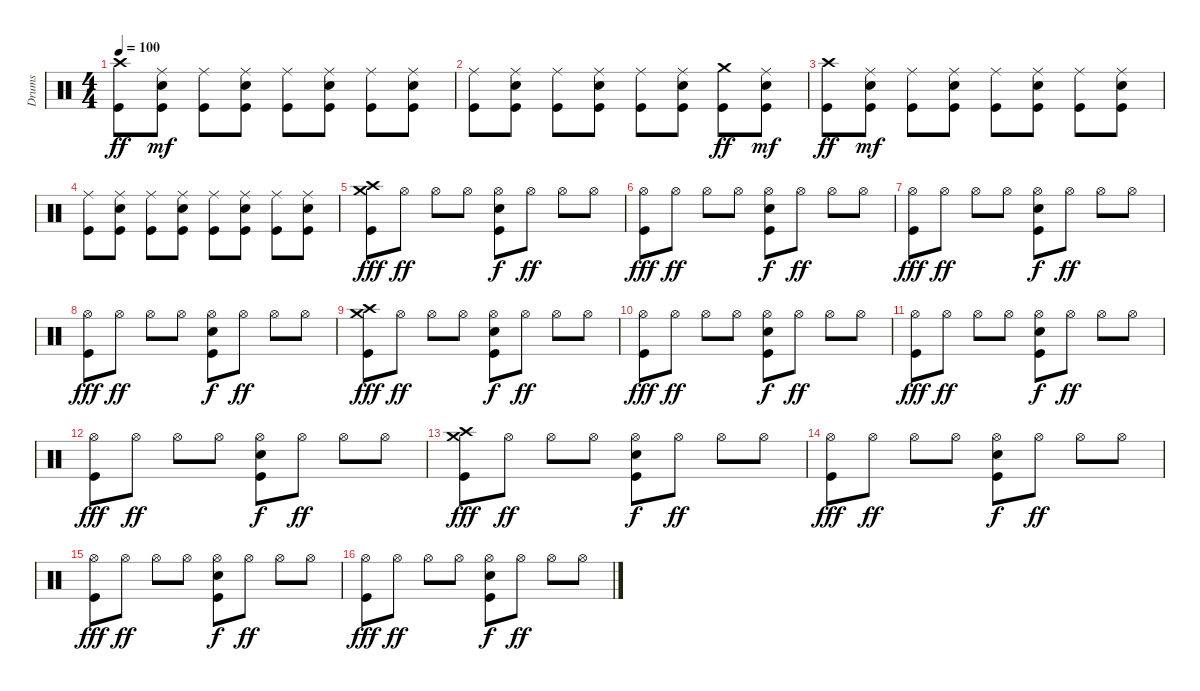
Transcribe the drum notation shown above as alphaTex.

\track ("Drums" "Drums") {instrument percussion}
\staff {score}
\articulation defaults
\ts (4 4)
\tempo 100
\clef neutral
\ks c
("Crash high (hit)" "Kick (hit)").8{dy ff} ("Ride (middle)" "Snare (hit) 2" "Kick (hit)").8{dy mf} ("Ride (middle)" "Kick (hit)").8 ("Ride (middle)" "Snare (hit) 2" "Kick (hit)").8 ("Ride (middle)" "Kick (hit)").8 ("Ride (middle)" "Snare (hit) 2" "Kick (hit)").8 ("Ride (middle)" "Kick (hit)").8 ("Ride (middle)" "Snare (hit) 2" "Kick (hit)").8 |
("Ride (middle)" "Kick (hit)").8 ("Ride (middle)" "Snare (hit) 2" "Kick (hit)").8 ("Ride (middle)" "Kick (hit)").8 ("Ride (middle)" "Snare (hit) 2" "Kick (hit)").8 ("Ride (middle)" "Kick (hit)").8 ("Ride (middle)" "Snare (hit) 2" "Kick (hit)").8 ("Crash medium (hit)" "Kick (hit)").8{dy ff} ("Ride (middle)" "Snare (hit) 2" "Kick (hit)").8{dy mf} |
("Crash high (hit)" "Kick (hit)").8{dy ff} ("Ride (middle)" "Snare (hit) 2" "Kick (hit)").8{dy mf} ("Ride (middle)" "Kick (hit)").8 ("Ride (middle)" "Snare (hit) 2" "Kick (hit)").8 ("Ride (middle)" "Kick (hit)").8 ("Ride (middle)" "Snare (hit) 2" "Kick (hit)").8 ("Ride (middle)" "Kick (hit)").8 ("Ride (middle)" "Snare (hit) 2" "Kick (hit)").8 |
("Ride (middle)" "Kick (hit)").8 ("Ride (middle)" "Snare (hit) 2" "Kick (hit)").8 ("Ride (middle)" "Kick (hit)").8 ("Ride (middle)" "Snare (hit) 2" "Kick (hit)").8 ("Ride (middle)" "Kick (hit)").8 ("Ride (middle)" "Snare (hit) 2" "Kick (hit)").8 ("Ride (middle)" "Kick (hit)").8 ("Ride (middle)" "Snare (hit) 2" "Kick (hit)").8 |
("Kick (hit)" "Crash high (hit)" "Crash medium (hit)").8{dy fff} "Hi-Hat (open)".8{dy ff} "Hi-Hat (open)".8 "Hi-Hat (open)".8 ("Kick (hit)" "Snare (hit) 2" "Hi-Hat (open)").8{dy f} "Hi-Hat (open)".8{dy ff} "Hi-Hat (open)".8 "Hi-Hat (open)".8 |
("Kick (hit)" "Hi-Hat (open)").8{dy fff} "Hi-Hat (open)".8{dy ff} "Hi-Hat (open)".8 "Hi-Hat (open)".8 ("Kick (hit)" "Snare (hit) 2" "Hi-Hat (open)").8{dy f} "Hi-Hat (open)".8{dy ff} "Hi-Hat (open)".8 "Hi-Hat (open)".8 |
("Kick (hit)" "Hi-Hat (open)").8{dy fff} "Hi-Hat (open)".8{dy ff} "Hi-Hat (open)".8 "Hi-Hat (open)".8 ("Kick (hit)" "Snare (hit) 2" "Hi-Hat (open)").8{dy f} "Hi-Hat (open)".8{dy ff} "Hi-Hat (open)".8 "Hi-Hat (open)".8 |
("Kick (hit)" "Hi-Hat (open)").8{dy fff} "Hi-Hat (open)".8{dy ff} "Hi-Hat (open)".8 "Hi-Hat (open)".8 ("Kick (hit)" "Snare (hit) 2" "Hi-Hat (open)").8{dy f} "Hi-Hat (open)".8{dy ff} "Hi-Hat (open)".8 "Hi-Hat (open)".8 |
("Kick (hit)" "Crash high (hit)" "Crash medium (hit)").8{dy fff} "Hi-Hat (open)".8{dy ff} "Hi-Hat (open)".8 "Hi-Hat (open)".8 ("Kick (hit)" "Snare (hit) 2" "Hi-Hat (open)").8{dy f} "Hi-Hat (open)".8{dy ff} "Hi-Hat (open)".8 "Hi-Hat (open)".8 |
("Kick (hit)" "Hi-Hat (open)").8{dy fff} "Hi-Hat (open)".8{dy ff} "Hi-Hat (open)".8 "Hi-Hat (open)".8 ("Kick (hit)" "Snare (hit) 2" "Hi-Hat (open)").8{dy f} "Hi-Hat (open)".8{dy ff} "Hi-Hat (open)".8 "Hi-Hat (open)".8 |
("Kick (hit)" "Hi-Hat (open)").8{dy fff} "Hi-Hat (open)".8{dy ff} "Hi-Hat (open)".8 "Hi-Hat (open)".8 ("Kick (hit)" "Snare (hit) 2" "Hi-Hat (open)").8{dy f} "Hi-Hat (open)".8{dy ff} "Hi-Hat (open)".8 "Hi-Hat (open)".8 |
("Kick (hit)" "Hi-Hat (open)").8{dy fff} "Hi-Hat (open)".8{dy ff} "Hi-Hat (open)".8 "Hi-Hat (open)".8 ("Kick (hit)" "Snare (hit) 2" "Hi-Hat (open)").8{dy f} "Hi-Hat (open)".8{dy ff} "Hi-Hat (open)".8 "Hi-Hat (open)".8 |
("Kick (hit)" "Crash high (hit)" "Crash medium (hit)").8{dy fff} "Hi-Hat (open)".8{dy ff} "Hi-Hat (open)".8 "Hi-Hat (open)".8 ("Kick (hit)" "Snare (hit) 2" "Hi-Hat (open)").8{dy f} "Hi-Hat (open)".8{dy ff} "Hi-Hat (open)".8 "Hi-Hat (open)".8 |
("Kick (hit)" "Hi-Hat (open)").8{dy fff} "Hi-Hat (open)".8{dy ff} "Hi-Hat (open)".8 "Hi-Hat (open)".8 ("Kick (hit)" "Snare (hit) 2" "Hi-Hat (open)").8{dy f} "Hi-Hat (open)".8{dy ff} "Hi-Hat (open)".8 "Hi-Hat (open)".8 |
("Kick (hit)" "Hi-Hat (open)").8{dy fff} "Hi-Hat (open)".8{dy ff} "Hi-Hat (open)".8 "Hi-Hat (open)".8 ("Kick (hit)" "Snare (hit) 2" "Hi-Hat (open)").8{dy f} "Hi-Hat (open)".8{dy ff} "Hi-Hat (open)".8 "Hi-Hat (open)".8 |
("Kick (hit)" "Hi-Hat (open)").8{dy fff} "Hi-Hat (open)".8{dy ff} "Hi-Hat (open)".8 "Hi-Hat (open)".8 ("Kick (hit)" "Snare (hit) 2" "Hi-Hat (open)").8{dy f} "Hi-Hat (open)".8{dy ff} "Hi-Hat (open)".8 "Hi-Hat (open)".8
